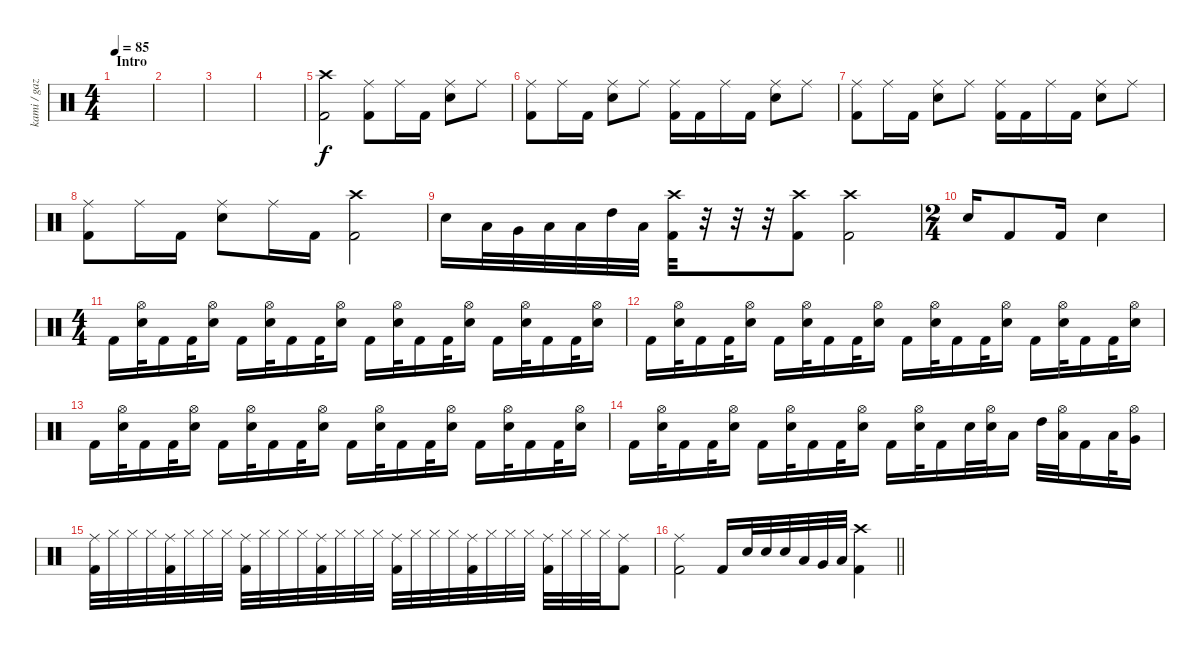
\track ("kami / gaz (?)" "kami / gaz") {instrument percussion}
\staff {score}
\articulation defaults
\ts (4 4)
\section ("" "Intro")
\tempo 85
\clef neutral
\ks c
|
|
|
|
("Kick (hit) 2" "Crash high (hit)").2 ("Kick (hit) 2" "Ride (middle)").8 "Ride (middle)".16 "Kick (hit) 2".16 ("Electric Snare (hit)" "Ride (middle)").8 "Ride (middle)".8 |
("Kick (hit) 2" "Ride (middle)").8 "Ride (middle)".16 "Kick (hit) 2".16 ("Electric Snare (hit)" "Ride (middle)").8 "Ride (middle)".8 ("Kick (hit) 2" "Ride (middle)").16 "Kick (hit) 2".16 "Ride (middle)".16 "Kick (hit) 2".16 ("Electric Snare (hit)" "Ride (middle)").8 "Ride (middle)".8 |
("Kick (hit) 2" "Ride (middle)").8 "Ride (middle)".16 "Kick (hit) 2".16 ("Electric Snare (hit)" "Ride (middle)").8 "Ride (middle)".8 ("Kick (hit) 2" "Ride (middle)").16 "Kick (hit) 2".16 "Ride (middle)".16 "Kick (hit) 2".16 ("Electric Snare (hit)" "Ride (middle)").8 "Ride (middle)".8 |
("Kick (hit) 2" "Ride (middle)").8 "Ride (middle)".16 "Kick (hit) 2".16 ("Electric Snare (hit)" "Ride (middle)").8 "Ride (middle)".16 "Kick (hit) 2".16 ("Kick (hit) 2" "Crash high (hit)").2 |
"Electric Snare (hit)".16 "Low Tom (hit)".32 "Very Low Tom (hit)".32 "Low Floor Tom (hit)".32 "Low Tom (hit)".32 "High Tom (hit)".32 "Low Tom (hit)".32 ("Kick (hit) 2" "Crash high (hit)").32 r.32 r.32 r.32 ("Kick (hit) 2" "Crash high (hit)").8 ("Kick (hit) 2" "Crash high (hit)").2 |
\ts (2 4)
"Electric Snare (hit)".16 "Kick (hit) 2".8 "Kick (hit) 2".16 "Electric Snare (hit)".4 |
\ts (4 4)
"Kick (hit) 2".16 ("Electric Snare (hit)" "Hi-Hat (open)").32 "Kick (hit) 2".16 "Kick (hit) 2".32 ("Electric Snare (hit)" "Hi-Hat (open)").16 "Kick (hit) 2".16 ("Electric Snare (hit)" "Hi-Hat (open)").32 "Kick (hit) 2".16 "Kick (hit) 2".32 ("Electric Snare (hit)" "Hi-Hat (open)").16 "Kick (hit) 2".16 ("Electric Snare (hit)" "Hi-Hat (open)").32 "Kick (hit) 2".16 "Kick (hit) 2".32 ("Electric Snare (hit)" "Hi-Hat (open)").16 "Kick (hit) 2".16 ("Electric Snare (hit)" "Hi-Hat (open)").32 "Kick (hit) 2".16 "Kick (hit) 2".32 ("Electric Snare (hit)" "Hi-Hat (open)").16 |
"Kick (hit) 2".16 ("Electric Snare (hit)" "Hi-Hat (open)").32 "Kick (hit) 2".16 "Kick (hit) 2".32 ("Electric Snare (hit)" "Hi-Hat (open)").16 "Kick (hit) 2".16 ("Electric Snare (hit)" "Hi-Hat (open)").32 "Kick (hit) 2".16 "Kick (hit) 2".32 ("Electric Snare (hit)" "Hi-Hat (open)").16 "Kick (hit) 2".16 ("Electric Snare (hit)" "Hi-Hat (open)").32 "Kick (hit) 2".16 "Kick (hit) 2".32 ("Electric Snare (hit)" "Hi-Hat (open)").16 "Kick (hit) 2".16 ("Electric Snare (hit)" "Hi-Hat (open)").32 "Kick (hit) 2".16 "Kick (hit) 2".32 ("Electric Snare (hit)" "Hi-Hat (open)").16 |
"Kick (hit) 2".16 ("Electric Snare (hit)" "Hi-Hat (open)").32 "Kick (hit) 2".16 "Kick (hit) 2".32 ("Electric Snare (hit)" "Hi-Hat (open)").16 "Kick (hit) 2".16 ("Electric Snare (hit)" "Hi-Hat (open)").32 "Kick (hit) 2".16 "Kick (hit) 2".32 ("Electric Snare (hit)" "Hi-Hat (open)").16 "Kick (hit) 2".16 ("Electric Snare (hit)" "Hi-Hat (open)").32 "Kick (hit) 2".16 "Kick (hit) 2".32 ("Electric Snare (hit)" "Hi-Hat (open)").16 "Kick (hit) 2".16 ("Electric Snare (hit)" "Hi-Hat (open)").32 "Kick (hit) 2".16 "Kick (hit) 2".32 ("Electric Snare (hit)" "Hi-Hat (open)").16 |
"Kick (hit) 2".16 ("Electric Snare (hit)" "Hi-Hat (open)").32 "Kick (hit) 2".16 "Kick (hit) 2".32 ("Electric Snare (hit)" "Hi-Hat (open)").16 "Kick (hit) 2".16 ("Electric Snare (hit)" "Hi-Hat (open)").32 "Kick (hit) 2".16 "Kick (hit) 2".32 ("Electric Snare (hit)" "Hi-Hat (open)").16 "Kick (hit) 2".16 ("Electric Snare (hit)" "Hi-Hat (open)").32 "Kick (hit) 2".16 "Electric Snare (hit)".32 ("Electric Snare (hit)" "Hi-Hat (open)").32 "Low Tom (hit)".16 "High Tom (hit)".32 ("Low Tom (hit)" "Hi-Hat (open)").32 "Kick (hit) 2".16 "Low Tom (hit)".32 ("Very Low Tom (hit)" "Hi-Hat (open)").16 |
("Kick (hit) 2" "Ride (middle)").32 "Hi-Hat (closed)".32 "Hi-Hat (closed)".32 "Hi-Hat (closed)".32 ("Kick (hit) 2" "Ride (middle)").32 "Hi-Hat (closed)".32 "Hi-Hat (closed)".32 "Hi-Hat (closed)".32 ("Kick (hit) 2" "Ride (middle)").32 "Hi-Hat (closed)".32 "Hi-Hat (closed)".32 "Hi-Hat (closed)".32 ("Kick (hit) 2" "Ride (middle)").32 "Hi-Hat (closed)".32 "Hi-Hat (closed)".32 "Hi-Hat (closed)".32 ("Kick (hit) 2" "Ride (middle)").32 "Hi-Hat (closed)".32 "Hi-Hat (closed)".32 "Hi-Hat (closed)".32 ("Kick (hit) 2" "Ride (middle)").32 "Hi-Hat (closed)".32 "Hi-Hat (closed)".32 "Hi-Hat (closed)".32 ("Kick (hit) 2" "Ride (middle)").32 "Hi-Hat (closed)".32 "Hi-Hat (closed)".32 "Hi-Hat (closed)".32 ("Kick (hit) 2" "Ride (middle)").8 |
\barLineRight lightlight
("Kick (hit) 2" "Ride (middle)").2 "Kick (hit) 2".16 "Electric Snare (hit)".32 "Electric Snare (hit)".32 "Electric Snare (hit)".32 "Low Tom (hit)".32 "Very Low Tom (hit)".32 "Low Floor Tom (hit)".32 ("Kick (hit) 2" "Crash high (hit)").4
